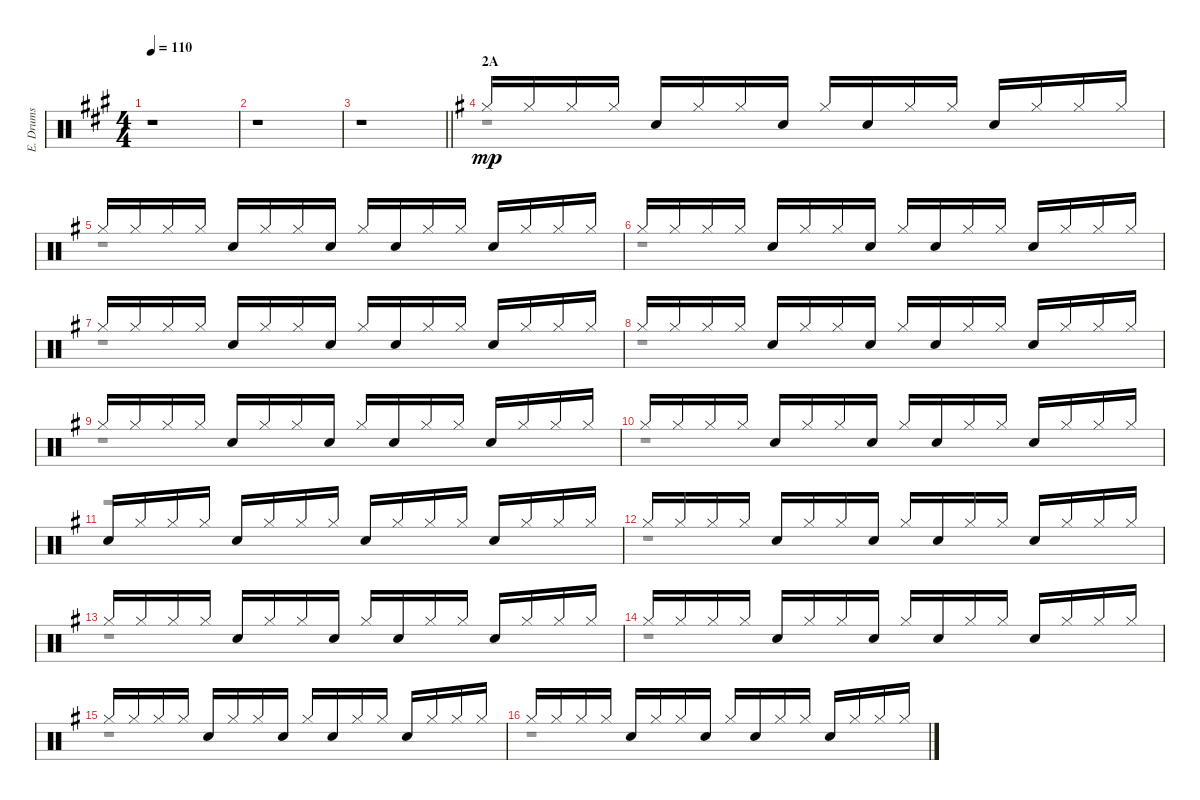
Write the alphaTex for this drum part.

\track ("E. Drums" "E. Drums") {instrument percussion}
\staff {score}
\articulation defaults
\voice
\ts (4 4)
\tempo 110
\clef neutral
\ks a
r.1{dy mp} |
r.1 |
\barLineRight lightlight
r.1 |
\section ("" "2A")
\ks g "Hi-Hat (closed)".16 "Hi-Hat (closed)".16 "Hi-Hat (closed)".16 "Hi-Hat (closed)".16 "Electric Snare (hit)".16 "Hi-Hat (closed)".16 "Hi-Hat (closed)".16 "Electric Snare (hit)".16 "Hi-Hat (closed)".16 "Electric Snare (hit)".16 "Hi-Hat (closed)".16 "Hi-Hat (closed)".16 "Electric Snare (hit)".16 "Hi-Hat (closed)".16 "Hi-Hat (closed)".16 "Hi-Hat (closed)".16
|
"Hi-Hat (closed)".16 "Hi-Hat (closed)".16 "Hi-Hat (closed)".16 "Hi-Hat (closed)".16 "Electric Snare (hit)".16 "Hi-Hat (closed)".16 "Hi-Hat (closed)".16 "Electric Snare (hit)".16 "Hi-Hat (closed)".16 "Electric Snare (hit)".16 "Hi-Hat (closed)".16 "Hi-Hat (closed)".16 "Electric Snare (hit)".16 "Hi-Hat (closed)".16 "Hi-Hat (closed)".16 "Hi-Hat (closed)".16 |
"Hi-Hat (closed)".16 "Hi-Hat (closed)".16 "Hi-Hat (closed)".16 "Hi-Hat (closed)".16 "Electric Snare (hit)".16 "Hi-Hat (closed)".16 "Hi-Hat (closed)".16 "Electric Snare (hit)".16 "Hi-Hat (closed)".16 "Electric Snare (hit)".16 "Hi-Hat (closed)".16 "Hi-Hat (closed)".16 "Electric Snare (hit)".16 "Hi-Hat (closed)".16 "Hi-Hat (closed)".16 "Hi-Hat (closed)".16 |
"Hi-Hat (closed)".16 "Hi-Hat (closed)".16 "Hi-Hat (closed)".16 "Hi-Hat (closed)".16 "Electric Snare (hit)".16 "Hi-Hat (closed)".16 "Hi-Hat (closed)".16 "Electric Snare (hit)".16 "Hi-Hat (closed)".16 "Electric Snare (hit)".16 "Hi-Hat (closed)".16 "Hi-Hat (closed)".16 "Electric Snare (hit)".16 "Hi-Hat (closed)".16 "Hi-Hat (closed)".16 "Hi-Hat (closed)".16 |
"Hi-Hat (closed)".16 "Hi-Hat (closed)".16 "Hi-Hat (closed)".16 "Hi-Hat (closed)".16 "Electric Snare (hit)".16 "Hi-Hat (closed)".16 "Hi-Hat (closed)".16 "Electric Snare (hit)".16 "Hi-Hat (closed)".16 "Electric Snare (hit)".16 "Hi-Hat (closed)".16 "Hi-Hat (closed)".16 "Electric Snare (hit)".16 "Hi-Hat (closed)".16 "Hi-Hat (closed)".16 "Hi-Hat (closed)".16 |
"Hi-Hat (closed)".16 "Hi-Hat (closed)".16 "Hi-Hat (closed)".16 "Hi-Hat (closed)".16 "Electric Snare (hit)".16 "Hi-Hat (closed)".16 "Hi-Hat (closed)".16 "Electric Snare (hit)".16 "Hi-Hat (closed)".16 "Electric Snare (hit)".16 "Hi-Hat (closed)".16 "Hi-Hat (closed)".16 "Electric Snare (hit)".16 "Hi-Hat (closed)".16 "Hi-Hat (closed)".16 "Hi-Hat (closed)".16 |
"Hi-Hat (closed)".16 "Hi-Hat (closed)".16 "Hi-Hat (closed)".16 "Hi-Hat (closed)".16 "Electric Snare (hit)".16 "Hi-Hat (closed)".16 "Hi-Hat (closed)".16 "Electric Snare (hit)".16 "Hi-Hat (closed)".16 "Electric Snare (hit)".16 "Hi-Hat (closed)".16 "Hi-Hat (closed)".16 "Electric Snare (hit)".16 "Hi-Hat (closed)".16 "Hi-Hat (closed)".16 "Hi-Hat (closed)".16 |
"Electric Snare (hit)".16 "Hi-Hat (closed)".16 "Hi-Hat (closed)".16 "Hi-Hat (closed)".16 "Electric Snare (hit)".16 "Hi-Hat (closed)".16 "Hi-Hat (closed)".16 "Hi-Hat (closed)".16 "Electric Snare (hit)".16 "Hi-Hat (closed)".16 "Hi-Hat (closed)".16 "Hi-Hat (closed)".16 "Electric Snare (hit)".16 "Hi-Hat (closed)".16 "Hi-Hat (closed)".16 "Hi-Hat (closed)".16 |
"Hi-Hat (closed)".16 "Hi-Hat (closed)".16 "Hi-Hat (closed)".16 "Hi-Hat (closed)".16 "Electric Snare (hit)".16 "Hi-Hat (closed)".16 "Hi-Hat (closed)".16 "Electric Snare (hit)".16 "Hi-Hat (closed)".16 "Electric Snare (hit)".16 "Hi-Hat (closed)".16 "Hi-Hat (closed)".16 "Electric Snare (hit)".16 "Hi-Hat (closed)".16 "Hi-Hat (closed)".16 "Hi-Hat (closed)".16 |
"Hi-Hat (closed)".16 "Hi-Hat (closed)".16 "Hi-Hat (closed)".16 "Hi-Hat (closed)".16 "Electric Snare (hit)".16 "Hi-Hat (closed)".16 "Hi-Hat (closed)".16 "Electric Snare (hit)".16 "Hi-Hat (closed)".16 "Electric Snare (hit)".16 "Hi-Hat (closed)".16 "Hi-Hat (closed)".16 "Electric Snare (hit)".16 "Hi-Hat (closed)".16 "Hi-Hat (closed)".16 "Hi-Hat (closed)".16 |
"Hi-Hat (closed)".16 "Hi-Hat (closed)".16 "Hi-Hat (closed)".16 "Hi-Hat (closed)".16 "Electric Snare (hit)".16 "Hi-Hat (closed)".16 "Hi-Hat (closed)".16 "Electric Snare (hit)".16 "Hi-Hat (closed)".16 "Electric Snare (hit)".16 "Hi-Hat (closed)".16 "Hi-Hat (closed)".16 "Electric Snare (hit)".16 "Hi-Hat (closed)".16 "Hi-Hat (closed)".16 "Hi-Hat (closed)".16 |
"Hi-Hat (closed)".16 "Hi-Hat (closed)".16 "Hi-Hat (closed)".16 "Hi-Hat (closed)".16 "Electric Snare (hit)".16 "Hi-Hat (closed)".16 "Hi-Hat (closed)".16 "Electric Snare (hit)".16 "Hi-Hat (closed)".16 "Electric Snare (hit)".16 "Hi-Hat (closed)".16 "Hi-Hat (closed)".16 "Electric Snare (hit)".16 "Hi-Hat (closed)".16 "Hi-Hat (closed)".16 "Hi-Hat (closed)".16 |
"Hi-Hat (closed)".16 "Hi-Hat (closed)".16 "Hi-Hat (closed)".16 "Hi-Hat (closed)".16 "Electric Snare (hit)".16 "Hi-Hat (closed)".16 "Hi-Hat (closed)".16 "Electric Snare (hit)".16 "Hi-Hat (closed)".16 "Electric Snare (hit)".16 "Hi-Hat (closed)".16 "Hi-Hat (closed)".16 "Electric Snare (hit)".16 "Hi-Hat (closed)".16 "Hi-Hat (closed)".16 "Hi-Hat (closed)".16
\voice
\clef neutral
\ottava regular
\simile none
\ks a
r.1{dy mp} |
r.1 |
\barLineRight lightlight
r.1 |
\ks g
r.1 |
r.1 |
r.1 |
r.1 |
r.1 |
r.1 |
r.1 |
r.1 |
r.1 |
r.1 |
r.1 |
r.1 |
r.1
